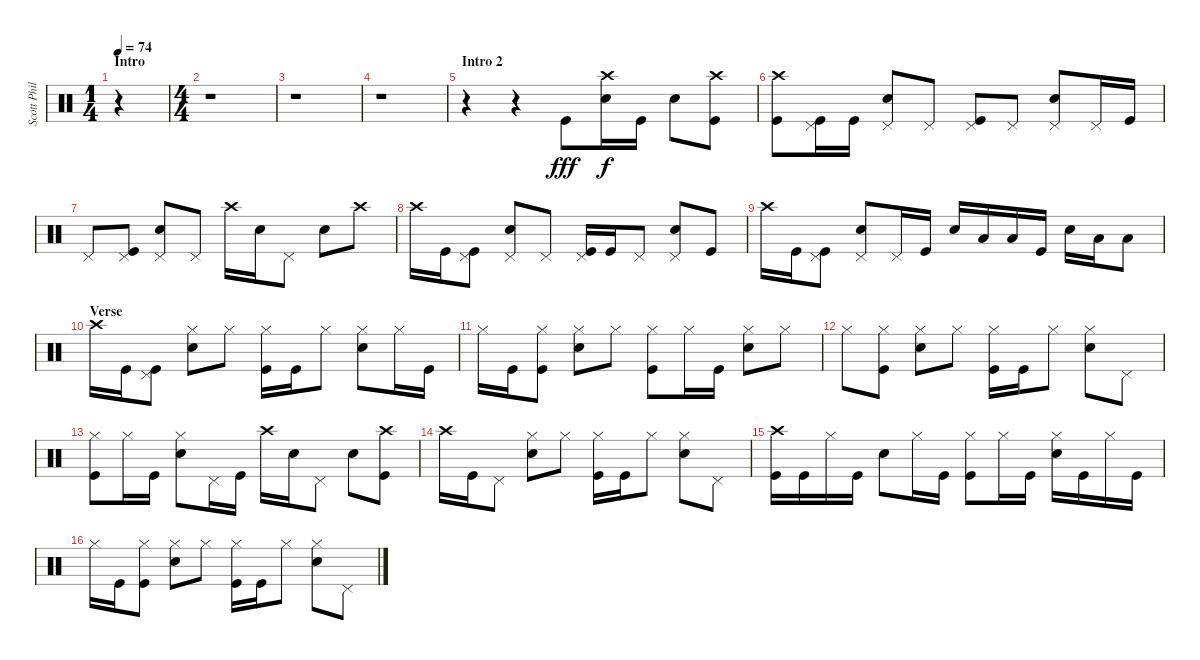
\track ("Scott Phillips" "Scott Phil") {instrument percussion}
\staff {score}
\articulation defaults
\ts (1 4)
\section ("" "Intro")
\tempo 74
\clef neutral
\ks c
r.4{dy fff} |
\ts (4 4)
r.1 |
r.1 |
r.1 |
\section ("" "Intro 2")
r.4 r.4 "Kick (hit)".8 ("Crash high (hit)" "Snare (hit) 2").16{dy f} "Kick (hit)".16 "Snare (hit) 2".8 ("Crash high (hit)" "Kick (hit)").8 |
("Crash high (hit)" "Kick (hit)").8 ("Pedal Hi-Hat (hit)" "Kick (hit)").16 "Kick (hit)".16 ("Pedal Hi-Hat (hit)" "Snare (hit) 2").8 "Pedal Hi-Hat (hit)".8 ("Pedal Hi-Hat (hit)" "Kick (hit)").8 "Pedal Hi-Hat (hit)".8 ("Pedal Hi-Hat (hit)" "Snare (hit) 2").8 "Pedal Hi-Hat (hit)".16 "Kick (hit)".16 |
"Pedal Hi-Hat (hit)".8 ("Pedal Hi-Hat (hit)" "Kick (hit)").8 ("Pedal Hi-Hat (hit)" "Snare (hit) 2").8 "Pedal Hi-Hat (hit)".8 "Crash high (hit)".16 "Snare (hit) 2".16 "Pedal Hi-Hat (hit)".8 "Snare (hit) 2".8 "Crash high (hit)".8 |
"Crash high (hit)".16 "Kick (hit)".16 ("Pedal Hi-Hat (hit)" "Kick (hit)").8 ("Pedal Hi-Hat (hit)" "Snare (hit) 2").8 "Pedal Hi-Hat (hit)".8 ("Pedal Hi-Hat (hit)" "Kick (hit)").16 "Kick (hit)".16 "Pedal Hi-Hat (hit)".8 ("Pedal Hi-Hat (hit)" "Snare (hit) 2").8 "Kick (hit)".8 |
"Crash high (hit)".16 "Kick (hit)".16 ("Pedal Hi-Hat (hit)" "Kick (hit)").8 ("Pedal Hi-Hat (hit)" "Snare (hit) 2").8 "Pedal Hi-Hat (hit)".16 "Kick (hit)".16 "Snare (hit) 2".16 "Low Tom (hit)".16 "Low Tom (hit)".16 "Kick (hit)".16 "Snare (hit) 2".16 "Low Tom (hit)".16 "Low Tom (hit)".8 |
\section ("" "Verse")
"Crash high (hit)".16 "Kick (hit)".16 ("Pedal Hi-Hat (hit)" "Kick (hit)").8 ("Hi-Hat (closed)" "Snare (hit) 2").8 "Hi-Hat (closed)".8 ("Hi-Hat (closed)" "Kick (hit)").16 "Kick (hit)".16 "Hi-Hat (closed)".8 ("Hi-Hat (closed)" "Snare (hit) 2").8 "Hi-Hat (closed)".16 "Kick (hit)".16 |
"Hi-Hat (closed)".16 "Kick (hit)".16 ("Hi-Hat (closed)" "Kick (hit)").8 ("Hi-Hat (closed)" "Snare (hit) 2").8 "Hi-Hat (closed)".8 ("Hi-Hat (closed)" "Kick (hit)").8 "Hi-Hat (closed)".16 "Kick (hit)".16 ("Hi-Hat (closed)" "Snare (hit) 2").8 "Hi-Hat (closed)".8 |
"Hi-Hat (closed)".8 ("Hi-Hat (closed)" "Kick (hit)").8 ("Hi-Hat (closed)" "Snare (hit) 2").8 "Hi-Hat (closed)".8 ("Hi-Hat (closed)" "Kick (hit)").16 "Kick (hit)".16 "Hi-Hat (closed)".8 ("Hi-Hat (closed)" "Snare (hit) 2").8 "Pedal Hi-Hat (hit)".8 |
("Hi-Hat (closed)" "Kick (hit)").8 "Hi-Hat (closed)".16 "Kick (hit)".16 ("Hi-Hat (closed)" "Snare (hit) 2").8 "Pedal Hi-Hat (hit)".16 "Kick (hit)".16 "Crash high (hit)".16 "Snare (hit) 2".16 "Pedal Hi-Hat (hit)".8 "Snare (hit) 2".8 ("Crash high (hit)" "Kick (hit)").8 |
"Crash high (hit)".16 "Kick (hit)".16 "Pedal Hi-Hat (hit)".8 ("Hi-Hat (closed)" "Snare (hit) 2").8 "Hi-Hat (closed)".8 ("Hi-Hat (closed)" "Kick (hit)").16 "Kick (hit)".16 "Hi-Hat (closed)".8 ("Hi-Hat (closed)" "Snare (hit) 2").8 "Pedal Hi-Hat (hit)".8 |
("Crash high (hit)" "Kick (hit)").16 "Kick (hit)".16 "Hi-Hat (closed)".16 "Kick (hit)".16 "Snare (hit) 2".8 "Hi-Hat (closed)".16 "Kick (hit)".16 ("Hi-Hat (closed)" "Kick (hit)").8 "Hi-Hat (closed)".16 "Kick (hit)".16 ("Hi-Hat (closed)" "Snare (hit) 2").16 "Kick (hit)".16 "Hi-Hat (closed)".16 "Kick (hit)".16 |
"Hi-Hat (closed)".16 "Kick (hit)".16 ("Hi-Hat (closed)" "Kick (hit)").8 ("Hi-Hat (closed)" "Snare (hit) 2").8 "Hi-Hat (closed)".8 ("Hi-Hat (closed)" "Kick (hit)").16 "Kick (hit)".16 "Hi-Hat (closed)".8 ("Hi-Hat (closed)" "Snare (hit) 2").8 "Pedal Hi-Hat (hit)".8
